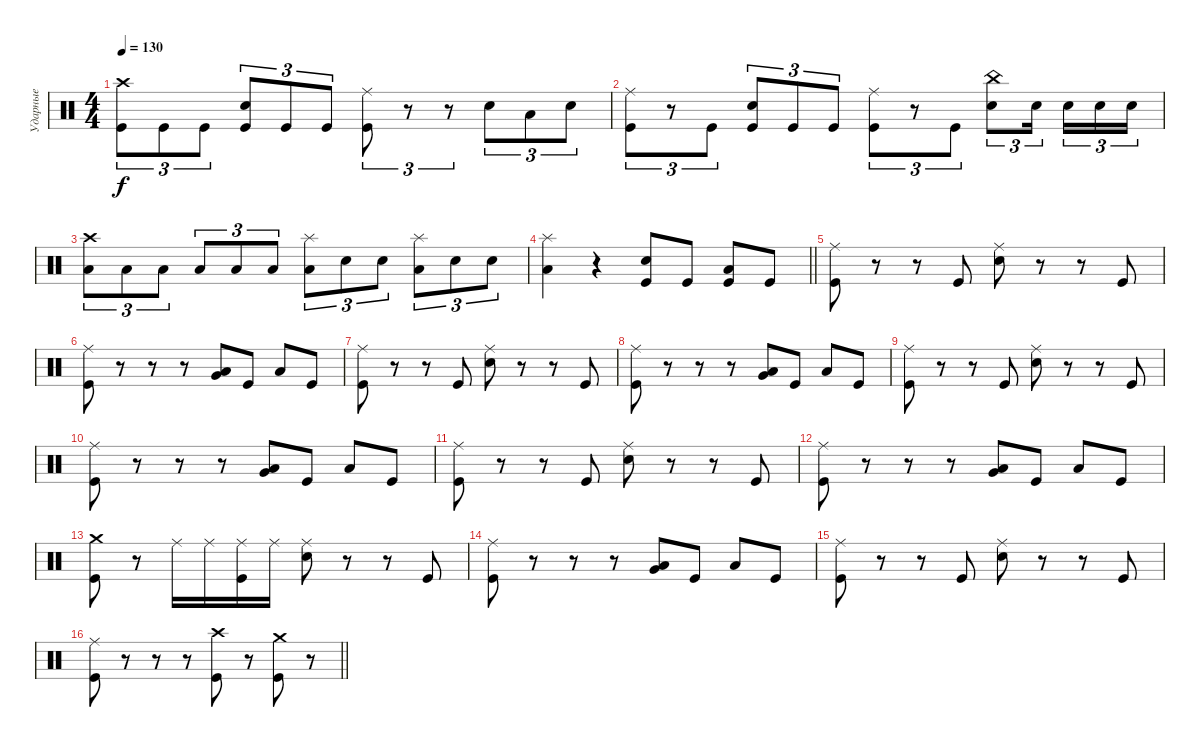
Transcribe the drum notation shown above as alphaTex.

\track ("Ударные" "Ударные") {instrument percussion}
\staff {score}
\articulation defaults
\ts (4 4)
\tempo 130
\clef neutral
\ks c
("Crash high (hit)" "Kick (hit)").8{tu (3 2) dy f} "Kick (hit)".8{tu (3 2)} "Kick (hit)".8{tu (3 2)} ("Electric Snare (hit)" "Kick (hit)").8{tu (3 2)} "Kick (hit)".8{tu (3 2)} "Kick (hit)".8{tu (3 2)} ("Ride (middle)" "Kick (hit)").8{tu (3 2)} r.8{tu (3 2)} r.8{tu (3 2)} "Electric Snare (hit)".8{tu (3 2)} "Low Floor Tom (hit)".8{tu (3 2)} "Electric Snare (hit)".8{tu (3 2)} |
("Ride (middle)" "Kick (hit)").8{tu (3 2)} r.8{tu (3 2)} "Kick (hit)".8{tu (3 2)} ("Electric Snare (hit)" "Kick (hit)").8{tu (3 2)} "Kick (hit)".8{tu (3 2)} "Kick (hit)".8{tu (3 2)} ("Ride (middle)" "Kick (hit)").8{tu (3 2)} r.8{tu (3 2)} "Kick (hit)".8{tu (3 2)} ("China (hit)" "Electric Snare (hit)").8{tu (3 2)} "Electric Snare (hit)".16{tu (3 2) beam splitsecondary} "Electric Snare (hit)".16{tu (3 2)} "Electric Snare (hit)".16{tu (3 2)} "Electric Snare (hit)".16{tu (3 2)} |
("Crash high (hit)" "Low Floor Tom (hit)").8{tu (3 2)} "Low Floor Tom (hit)".8{tu (3 2)} "Low Floor Tom (hit)".8{tu (3 2)} "Low Floor Tom (hit)".8{tu (3 2)} "Low Floor Tom (hit)".8{tu (3 2)} "Low Floor Tom (hit)".8{tu (3 2)} ("Splash (hit)" "Low Floor Tom (hit)").8{tu (3 2)} "Electric Snare (hit)".8{tu (3 2)} "Electric Snare (hit)".8{tu (3 2)} ("Splash (hit)" "Low Floor Tom (hit)").8{tu (3 2)} "Electric Snare (hit)".8{tu (3 2)} "Electric Snare (hit)".8{tu (3 2)} |
\barLineRight lightlight
("Splash (hit)" "Low Floor Tom (hit)").4 r.4 ("Electric Snare (hit)" "Kick (hit)").8 "Kick (hit)".8 ("Low Floor Tom (hit)" "Kick (hit)").8 "Kick (hit)".8 |
\section ("" " ")
("Ride (middle)" "Kick (hit)").8 r.8 r.8 "Kick (hit)".8 ("Ride (middle)" "Electric Snare (hit)").8 r.8 r.8 "Kick (hit)".8 |
("Ride (middle)" "Kick (hit)").8 r.8 r.8 r.8 ("Very Low Tom (hit)" "Low Floor Tom (hit)").8 "Kick (hit)".8 "Low Floor Tom (hit)".8 "Kick (hit)".8 |
("Ride (middle)" "Kick (hit)").8 r.8 r.8 "Kick (hit)".8 ("Ride (middle)" "Electric Snare (hit)").8 r.8 r.8 "Kick (hit)".8 |
("Ride (middle)" "Kick (hit)").8 r.8 r.8 r.8 ("Very Low Tom (hit)" "Low Floor Tom (hit)").8 "Kick (hit)".8 "Low Floor Tom (hit)".8 "Kick (hit)".8 |
("Ride (middle)" "Kick (hit)").8 r.8 r.8 "Kick (hit)".8 ("Ride (middle)" "Electric Snare (hit)").8 r.8 r.8 "Kick (hit)".8 |
("Ride (middle)" "Kick (hit)").8 r.8 r.8 r.8 ("Very Low Tom (hit)" "Low Floor Tom (hit)").8 "Kick (hit)".8 "Low Floor Tom (hit)".8 "Kick (hit)".8 |
("Ride (middle)" "Kick (hit)").8 r.8 r.8 "Kick (hit)".8 ("Ride (middle)" "Electric Snare (hit)").8 r.8 r.8 "Kick (hit)".8 |
("Ride (middle)" "Kick (hit)").8 r.8 r.8 r.8 ("Very Low Tom (hit)" "Low Floor Tom (hit)").8 "Kick (hit)".8 "Low Floor Tom (hit)".8 "Kick (hit)".8 |
("Crash medium (hit)" "Kick (hit)").8 r.8 "Ride (middle)".16 "Ride (middle)".16 ("Ride (middle)" "Kick (hit)").16 "Ride (middle)".16 ("Ride (middle)" "Electric Snare (hit)").8 r.8 r.8 "Kick (hit)".8 |
("Ride (middle)" "Kick (hit)").8 r.8 r.8 r.8 ("Very Low Tom (hit)" "Low Floor Tom (hit)").8 "Kick (hit)".8 "Low Floor Tom (hit)".8 "Kick (hit)".8 |
("Ride (middle)" "Kick (hit)").8 r.8 r.8 "Kick (hit)".8 ("Ride (middle)" "Electric Snare (hit)").8 r.8 r.8 "Kick (hit)".8 |
\barLineRight lightlight
("Ride (middle)" "Kick (hit)").8 r.8 r.8 r.8 ("Crash high (hit)" "Kick (hit)").8 r.8 ("Crash medium (hit)" "Kick (hit)").8 r.8
